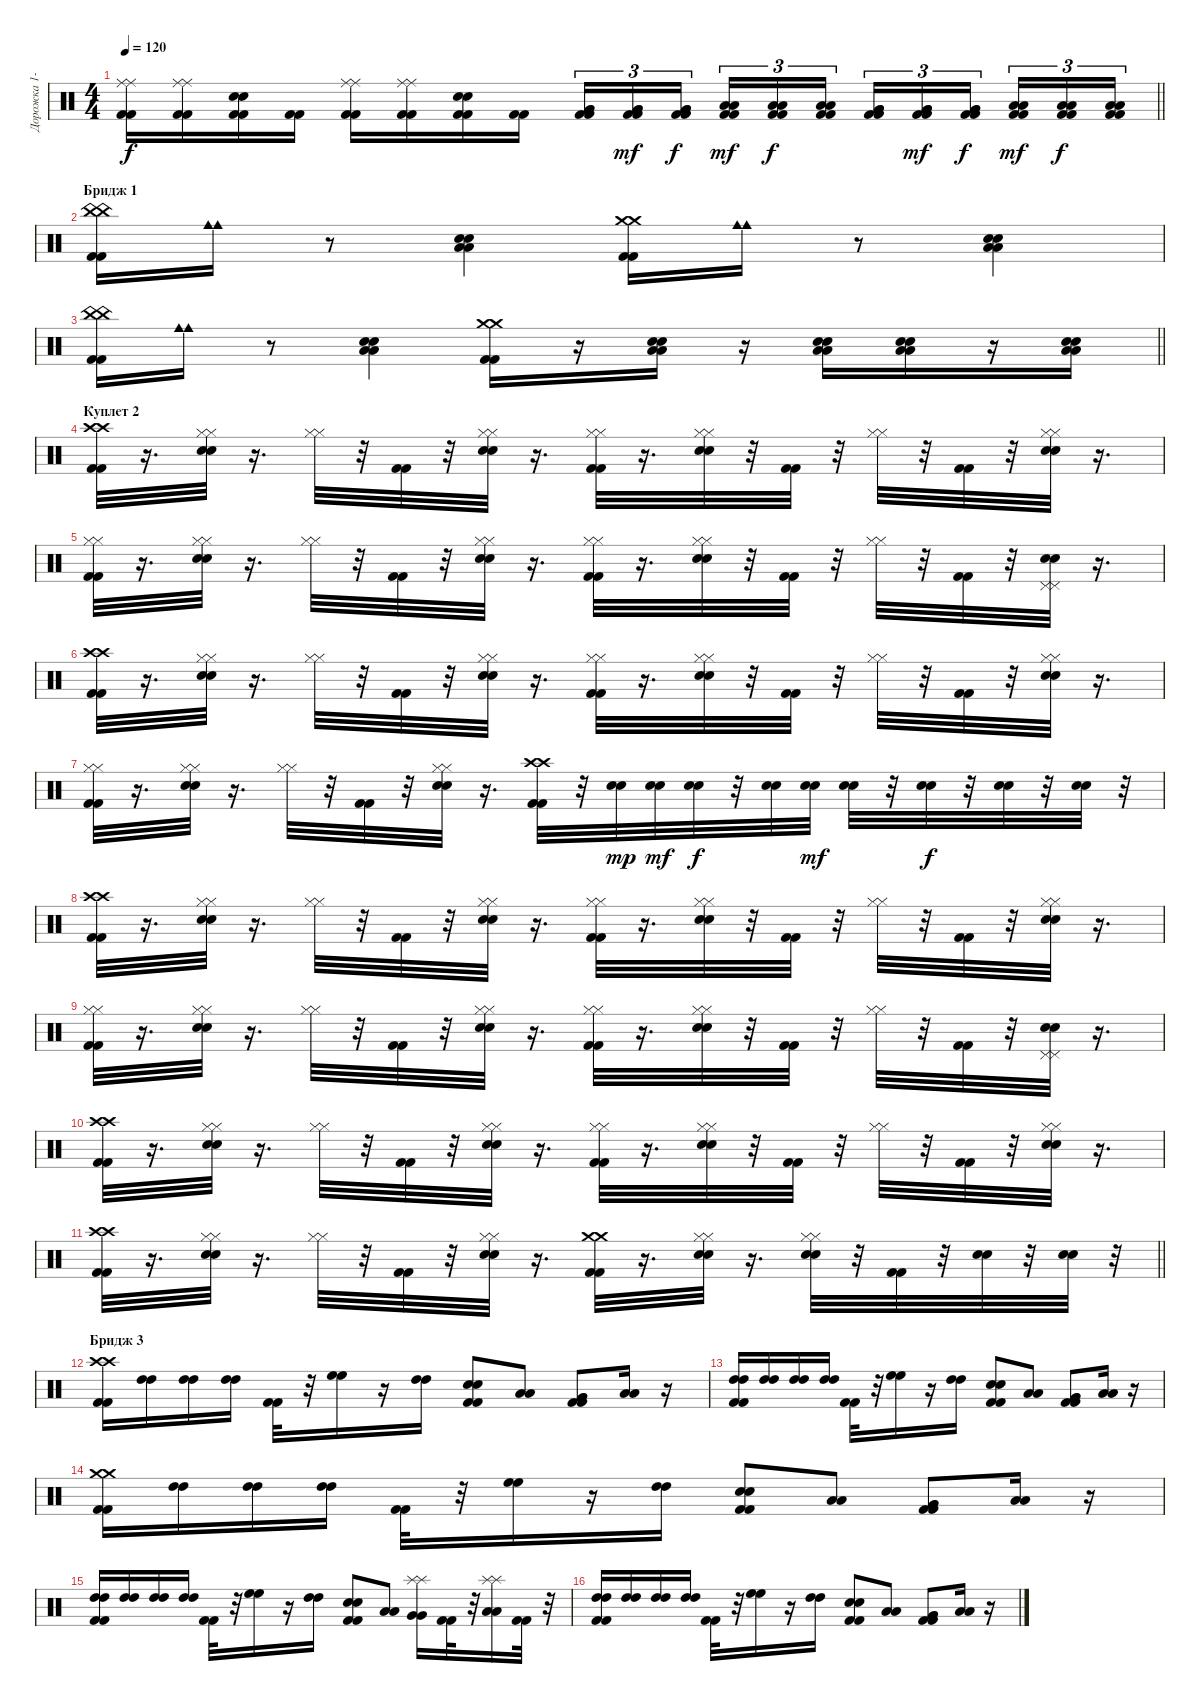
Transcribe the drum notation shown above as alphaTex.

\track ("Дорожка 1-2" "Дорожка 1-") {instrument percussion}
\staff {score}
\articulation defaults
\ts (4 4)
\tempo 120
\clef neutral
\barLineRight lightlight
\ks c
("Kick (hit) 2" "Kick (hit) 2" "Ride (middle)" "Ride (middle)").16{dy f} ("Kick (hit) 2" "Kick (hit) 2" "Ride (middle)" "Ride (middle)").16 ("Kick (hit) 2" "Kick (hit) 2" "Electric Snare (hit)" "Electric Snare (hit)").16 ("Kick (hit) 2" "Kick (hit) 2").16 ("Kick (hit) 2" "Kick (hit) 2" "Ride (middle)" "Ride (middle)").16 ("Kick (hit) 2" "Kick (hit) 2" "Ride (middle)" "Ride (middle)").16 ("Kick (hit) 2" "Kick (hit) 2" "Electric Snare (hit)" "Electric Snare (hit)").16 ("Kick (hit) 2" "Kick (hit) 2").16 ("Kick (hit) 2" "Kick (hit) 2" "Very Low Tom (hit)" "Very Low Tom (hit)").16{tu (3 2)} ("Kick (hit) 2" "Kick (hit) 2" "Very Low Tom (hit)" "Very Low Tom (hit)").16{tu (3 2) dy mf} ("Kick (hit) 2" "Kick (hit) 2" "Very Low Tom (hit)" "Very Low Tom (hit)").16{tu (3 2) dy f beam splitsecondary} ("Kick (hit) 2" "Kick (hit) 2" "Low Tom (hit)" "Low Tom (hit)").16{tu (3 2) dy mf} ("Kick (hit) 2" "Kick (hit) 2" "Low Tom (hit)" "Low Tom (hit)").16{tu (3 2) dy f} ("Kick (hit) 2" "Kick (hit) 2" "Low Tom (hit)" "Low Tom (hit)").16{tu (3 2)} ("Kick (hit) 2" "Kick (hit) 2" "Very Low Tom (hit)" "Very Low Tom (hit)").16{tu (3 2)} ("Kick (hit) 2" "Kick (hit) 2" "Very Low Tom (hit)" "Very Low Tom (hit)").16{tu (3 2) dy mf} ("Kick (hit) 2" "Kick (hit) 2" "Very Low Tom (hit)" "Very Low Tom (hit)").16{tu (3 2) dy f beam splitsecondary} ("Kick (hit) 2" "Kick (hit) 2" "Low Tom (hit)" "Low Tom (hit)").16{tu (3 2) dy mf} ("Kick (hit) 2" "Kick (hit) 2" "Low Tom (hit)" "Low Tom (hit)").16{tu (3 2) dy f} ("Kick (hit) 2" "Kick (hit) 2" "Low Tom (hit)" "Low Tom (hit)").16{tu (3 2)} |
\section ("" "Бридж 1")
("Kick (hit) 2" "Kick (hit) 2" "China (hit)" "China (hit)").16 ("Cowbell medium (hit)" "Cowbell medium (hit)").16 r.8 ("Electric Snare (hit)" "Electric Snare (hit)" "Low Floor Tom (hit)" "Low Floor Tom (hit)").4 ("Kick (hit) 2" "Kick (hit) 2" "Crash medium (hit)" "Crash medium (hit)").16 ("Cowbell medium (hit)" "Cowbell medium (hit)").16 r.8 ("Electric Snare (hit)" "Electric Snare (hit)" "Low Floor Tom (hit)" "Low Floor Tom (hit)").4 |
\barLineRight lightlight
("Kick (hit) 2" "Kick (hit) 2" "China (hit)" "China (hit)").16 ("Cowbell medium (hit)" "Cowbell medium (hit)").16 r.8 ("Electric Snare (hit)" "Electric Snare (hit)" "Low Floor Tom (hit)" "Low Floor Tom (hit)").4 ("Kick (hit) 2" "Kick (hit) 2" "Crash medium (hit)" "Crash medium (hit)").16 r.16 ("Electric Snare (hit)" "Electric Snare (hit)" "Low Floor Tom (hit)" "Low Floor Tom (hit)").16 r.16 ("Electric Snare (hit)" "Electric Snare (hit)" "Low Floor Tom (hit)" "Low Floor Tom (hit)").16 ("Electric Snare (hit)" "Electric Snare (hit)" "Low Floor Tom (hit)" "Low Floor Tom (hit)").16 r.16 ("Electric Snare (hit)" "Electric Snare (hit)" "Low Floor Tom (hit)" "Low Floor Tom (hit)").16 |
\section ("" "Куплет 2")
("Kick (hit) 2" "Kick (hit) 2" "Crash high (hit)" "Crash high (hit)").32 r.16{d} ("Electric Snare (hit)" "Electric Snare (hit)" "Hi-Hat (closed)" "Hi-Hat (closed)").32 r.16{d} ("Hi-Hat (closed)" "Hi-Hat (closed)").32 r.32 ("Kick (hit) 2" "Kick (hit) 2").32 r.32 ("Electric Snare (hit)" "Electric Snare (hit)" "Hi-Hat (closed)" "Hi-Hat (closed)").32 r.16{d} ("Kick (hit) 2" "Kick (hit) 2" "Hi-Hat (closed)" "Hi-Hat (closed)").32 r.16{d} ("Electric Snare (hit)" "Electric Snare (hit)" "Hi-Hat (closed)" "Hi-Hat (closed)").32 r.32 ("Kick (hit) 2" "Kick (hit) 2").32 r.32 ("Hi-Hat (closed)" "Hi-Hat (closed)").32 r.32 ("Kick (hit) 2" "Kick (hit) 2").32 r.32 ("Electric Snare (hit)" "Electric Snare (hit)" "Hi-Hat (closed)" "Hi-Hat (closed)").32 r.16{d} |
("Kick (hit) 2" "Kick (hit) 2" "Hi-Hat (closed)" "Hi-Hat (closed)").32 r.16{d} ("Electric Snare (hit)" "Electric Snare (hit)" "Hi-Hat (closed)" "Hi-Hat (closed)").32 r.16{d} ("Hi-Hat (closed)" "Hi-Hat (closed)").32 r.32 ("Kick (hit) 2" "Kick (hit) 2").32 r.32 ("Electric Snare (hit)" "Electric Snare (hit)" "Hi-Hat (closed)" "Hi-Hat (closed)").32 r.16{d} ("Kick (hit) 2" "Kick (hit) 2" "Hi-Hat (closed)" "Hi-Hat (closed)").32 r.16{d} ("Electric Snare (hit)" "Electric Snare (hit)" "Hi-Hat (closed)" "Hi-Hat (closed)").32 r.32 ("Kick (hit) 2" "Kick (hit) 2").32 r.32 ("Hi-Hat (closed)" "Hi-Hat (closed)").32 r.32 ("Kick (hit) 2" "Kick (hit) 2").32 r.32 ("Electric Snare (hit)" "Electric Snare (hit)" "Pedal Hi-Hat (hit)" "Pedal Hi-Hat (hit)").32 r.16{d} |
("Kick (hit) 2" "Kick (hit) 2" "Crash high (hit)" "Crash high (hit)").32 r.16{d} ("Electric Snare (hit)" "Electric Snare (hit)" "Hi-Hat (closed)" "Hi-Hat (closed)").32 r.16{d} ("Hi-Hat (closed)" "Hi-Hat (closed)").32 r.32 ("Kick (hit) 2" "Kick (hit) 2").32 r.32 ("Electric Snare (hit)" "Electric Snare (hit)" "Hi-Hat (closed)" "Hi-Hat (closed)").32 r.16{d} ("Kick (hit) 2" "Kick (hit) 2" "Hi-Hat (closed)" "Hi-Hat (closed)").32 r.16{d} ("Electric Snare (hit)" "Electric Snare (hit)" "Hi-Hat (closed)" "Hi-Hat (closed)").32 r.32 ("Kick (hit) 2" "Kick (hit) 2").32 r.32 ("Hi-Hat (closed)" "Hi-Hat (closed)").32 r.32 ("Kick (hit) 2" "Kick (hit) 2").32 r.32 ("Electric Snare (hit)" "Electric Snare (hit)" "Hi-Hat (closed)" "Hi-Hat (closed)").32 r.16{d} |
("Kick (hit) 2" "Kick (hit) 2" "Hi-Hat (closed)" "Hi-Hat (closed)").32 r.16{d} ("Electric Snare (hit)" "Electric Snare (hit)" "Hi-Hat (closed)" "Hi-Hat (closed)").32 r.16{d} ("Hi-Hat (closed)" "Hi-Hat (closed)").32 r.32 ("Kick (hit) 2" "Kick (hit) 2").32 r.32 ("Electric Snare (hit)" "Electric Snare (hit)" "Hi-Hat (closed)" "Hi-Hat (closed)").32 r.16{d} ("Kick (hit) 2" "Kick (hit) 2" "Crash high (hit)" "Crash high (hit)").32 r.32 ("Electric Snare (hit)" "Electric Snare (hit)").32{dy mp} ("Electric Snare (hit)" "Electric Snare (hit)").32{dy mf} ("Electric Snare (hit)" "Electric Snare (hit)").32{dy f} r.32 ("Electric Snare (hit)" "Electric Snare (hit)").32 ("Electric Snare (hit)" "Electric Snare (hit)").32{dy mf} ("Electric Snare (hit)" "Electric Snare (hit)").32 r.32 ("Electric Snare (hit)" "Electric Snare (hit)").32{dy f} r.32 ("Electric Snare (hit)" "Electric Snare (hit)").32 r.32 ("Electric Snare (hit)" "Electric Snare (hit)").32 r.32 |
("Kick (hit) 2" "Kick (hit) 2" "Crash high (hit)" "Crash high (hit)").32 r.16{d} ("Electric Snare (hit)" "Electric Snare (hit)" "Hi-Hat (closed)" "Hi-Hat (closed)").32 r.16{d} ("Hi-Hat (closed)" "Hi-Hat (closed)").32 r.32 ("Kick (hit) 2" "Kick (hit) 2").32 r.32 ("Electric Snare (hit)" "Electric Snare (hit)" "Hi-Hat (closed)" "Hi-Hat (closed)").32 r.16{d} ("Kick (hit) 2" "Kick (hit) 2" "Hi-Hat (closed)" "Hi-Hat (closed)").32 r.16{d} ("Electric Snare (hit)" "Electric Snare (hit)" "Hi-Hat (closed)" "Hi-Hat (closed)").32 r.32 ("Kick (hit) 2" "Kick (hit) 2").32 r.32 ("Hi-Hat (closed)" "Hi-Hat (closed)").32 r.32 ("Kick (hit) 2" "Kick (hit) 2").32 r.32 ("Electric Snare (hit)" "Electric Snare (hit)" "Hi-Hat (closed)" "Hi-Hat (closed)").32 r.16{d} |
("Kick (hit) 2" "Kick (hit) 2" "Hi-Hat (closed)" "Hi-Hat (closed)").32 r.16{d} ("Electric Snare (hit)" "Electric Snare (hit)" "Hi-Hat (closed)" "Hi-Hat (closed)").32 r.16{d} ("Hi-Hat (closed)" "Hi-Hat (closed)").32 r.32 ("Kick (hit) 2" "Kick (hit) 2").32 r.32 ("Electric Snare (hit)" "Electric Snare (hit)" "Hi-Hat (closed)" "Hi-Hat (closed)").32 r.16{d} ("Kick (hit) 2" "Kick (hit) 2" "Hi-Hat (closed)" "Hi-Hat (closed)").32 r.16{d} ("Electric Snare (hit)" "Electric Snare (hit)" "Hi-Hat (closed)" "Hi-Hat (closed)").32 r.32 ("Kick (hit) 2" "Kick (hit) 2").32 r.32 ("Hi-Hat (closed)" "Hi-Hat (closed)").32 r.32 ("Kick (hit) 2" "Kick (hit) 2").32 r.32 ("Electric Snare (hit)" "Electric Snare (hit)" "Pedal Hi-Hat (hit)" "Pedal Hi-Hat (hit)").32 r.16{d} |
("Kick (hit) 2" "Kick (hit) 2" "Crash high (hit)" "Crash high (hit)").32 r.16{d} ("Electric Snare (hit)" "Electric Snare (hit)" "Hi-Hat (closed)" "Hi-Hat (closed)").32 r.16{d} ("Hi-Hat (closed)" "Hi-Hat (closed)").32 r.32 ("Kick (hit) 2" "Kick (hit) 2").32 r.32 ("Electric Snare (hit)" "Electric Snare (hit)" "Hi-Hat (closed)" "Hi-Hat (closed)").32 r.16{d} ("Kick (hit) 2" "Kick (hit) 2" "Hi-Hat (closed)" "Hi-Hat (closed)").32 r.16{d} ("Electric Snare (hit)" "Electric Snare (hit)" "Hi-Hat (closed)" "Hi-Hat (closed)").32 r.32 ("Kick (hit) 2" "Kick (hit) 2").32 r.32 ("Hi-Hat (closed)" "Hi-Hat (closed)").32 r.32 ("Kick (hit) 2" "Kick (hit) 2").32 r.32 ("Electric Snare (hit)" "Electric Snare (hit)" "Hi-Hat (closed)" "Hi-Hat (closed)").32 r.16{d} |
\barLineRight lightlight
("Kick (hit) 2" "Kick (hit) 2" "Crash high (hit)" "Crash high (hit)").32 r.16{d} ("Electric Snare (hit)" "Electric Snare (hit)" "Hi-Hat (closed)" "Hi-Hat (closed)").32 r.16{d} ("Hi-Hat (closed)" "Hi-Hat (closed)").32 r.32 ("Kick (hit) 2" "Kick (hit) 2").32 r.32 ("Electric Snare (hit)" "Electric Snare (hit)" "Hi-Hat (closed)" "Hi-Hat (closed)").32 r.16{d} ("Kick (hit) 2" "Kick (hit) 2" "Crash medium (hit)" "Crash medium (hit)").32 r.16{d} ("Electric Snare (hit)" "Electric Snare (hit)" "Hi-Hat (closed)" "Hi-Hat (closed)").32 r.16{d} ("Electric Snare (hit)" "Electric Snare (hit)" "Hi-Hat (closed)" "Hi-Hat (closed)").32 r.32 ("Kick (hit) 2" "Kick (hit) 2").32 r.32 ("Electric Snare (hit)" "Electric Snare (hit)").32 r.32 ("Electric Snare (hit)" "Electric Snare (hit)").32 r.32 |
\section ("" "Бридж 3")
("Kick (hit) 2" "Kick (hit) 2" "Crash high (hit)" "Crash high (hit)").16 ("High Tom (hit)" "High Tom (hit)").16 ("High Tom (hit)" "High Tom (hit)").16 ("High Tom (hit)" "High Tom (hit)").16 ("Kick (hit) 2" "Kick (hit) 2").32 r.32 ("High Floor Tom (hit)" "High Floor Tom (hit)").16 r.16 ("High Tom (hit)" "High Tom (hit)").16 ("Kick (hit) 2" "Kick (hit) 2" "Electric Snare (hit)" "Electric Snare (hit)").8 ("Low Tom (hit)" "Low Tom (hit)").8 ("Kick (hit) 2" "Kick (hit) 2" "Very Low Tom (hit)" "Very Low Tom (hit)").8 ("Low Floor Tom (hit)" "Low Floor Tom (hit)").16 r.16 |
("Kick (hit) 2" "Kick (hit) 2" "High Tom (hit)" "High Tom (hit)").16 ("High Tom (hit)" "High Tom (hit)").16 ("High Tom (hit)" "High Tom (hit)").16 ("High Tom (hit)" "High Tom (hit)").16 ("Kick (hit) 2" "Kick (hit) 2").32 r.32 ("High Floor Tom (hit)" "High Floor Tom (hit)").16 r.16 ("High Tom (hit)" "High Tom (hit)").16 ("Kick (hit) 2" "Kick (hit) 2" "Electric Snare (hit)" "Electric Snare (hit)").8 ("Low Tom (hit)" "Low Tom (hit)").8 ("Kick (hit) 2" "Kick (hit) 2" "Very Low Tom (hit)" "Very Low Tom (hit)").8 ("Low Floor Tom (hit)" "Low Floor Tom (hit)").16 r.16 |
("Kick (hit) 2" "Kick (hit) 2" "Crash medium (hit)" "Crash medium (hit)").16 ("High Tom (hit)" "High Tom (hit)").16 ("High Tom (hit)" "High Tom (hit)").16 ("High Tom (hit)" "High Tom (hit)").16 ("Kick (hit) 2" "Kick (hit) 2").32 r.32 ("High Floor Tom (hit)" "High Floor Tom (hit)").16 r.16 ("High Tom (hit)" "High Tom (hit)").16 ("Kick (hit) 2" "Kick (hit) 2" "Electric Snare (hit)" "Electric Snare (hit)").8 ("Low Tom (hit)" "Low Tom (hit)").8 ("Kick (hit) 2" "Kick (hit) 2" "Very Low Tom (hit)" "Very Low Tom (hit)").8 ("Low Floor Tom (hit)" "Low Floor Tom (hit)").16 r.16 |
("Kick (hit) 2" "Kick (hit) 2" "High Tom (hit)" "High Tom (hit)").16 ("High Tom (hit)" "High Tom (hit)").16 ("High Tom (hit)" "High Tom (hit)").16 ("High Tom (hit)" "High Tom (hit)").16 ("Kick (hit) 2" "Kick (hit) 2").32 r.32 ("High Floor Tom (hit)" "High Floor Tom (hit)").16 r.16 ("High Tom (hit)" "High Tom (hit)").16 ("Kick (hit) 2" "Kick (hit) 2" "Electric Snare (hit)" "Electric Snare (hit)").8 ("Low Tom (hit)" "Low Tom (hit)").8 ("Very Low Tom (hit)" "Very Low Tom (hit)" "Splash (hit)" "Splash (hit)").16 ("Kick (hit) 2" "Kick (hit) 2").32 r.32 ("Low Floor Tom (hit)" "Low Floor Tom (hit)" "Splash (hit)" "Splash (hit)").16 ("Kick (hit) 2" "Kick (hit) 2").32 r.32 |
("Kick (hit) 2" "Kick (hit) 2" "High Tom (hit)" "High Tom (hit)").16 ("High Tom (hit)" "High Tom (hit)").16 ("High Tom (hit)" "High Tom (hit)").16 ("High Tom (hit)" "High Tom (hit)").16 ("Kick (hit) 2" "Kick (hit) 2").32 r.32 ("High Floor Tom (hit)" "High Floor Tom (hit)").16 r.16 ("High Tom (hit)" "High Tom (hit)").16 ("Kick (hit) 2" "Kick (hit) 2" "Electric Snare (hit)" "Electric Snare (hit)").8 ("Low Tom (hit)" "Low Tom (hit)").8 ("Kick (hit) 2" "Kick (hit) 2" "Very Low Tom (hit)" "Very Low Tom (hit)").8 ("Low Floor Tom (hit)" "Low Floor Tom (hit)").16 r.16
